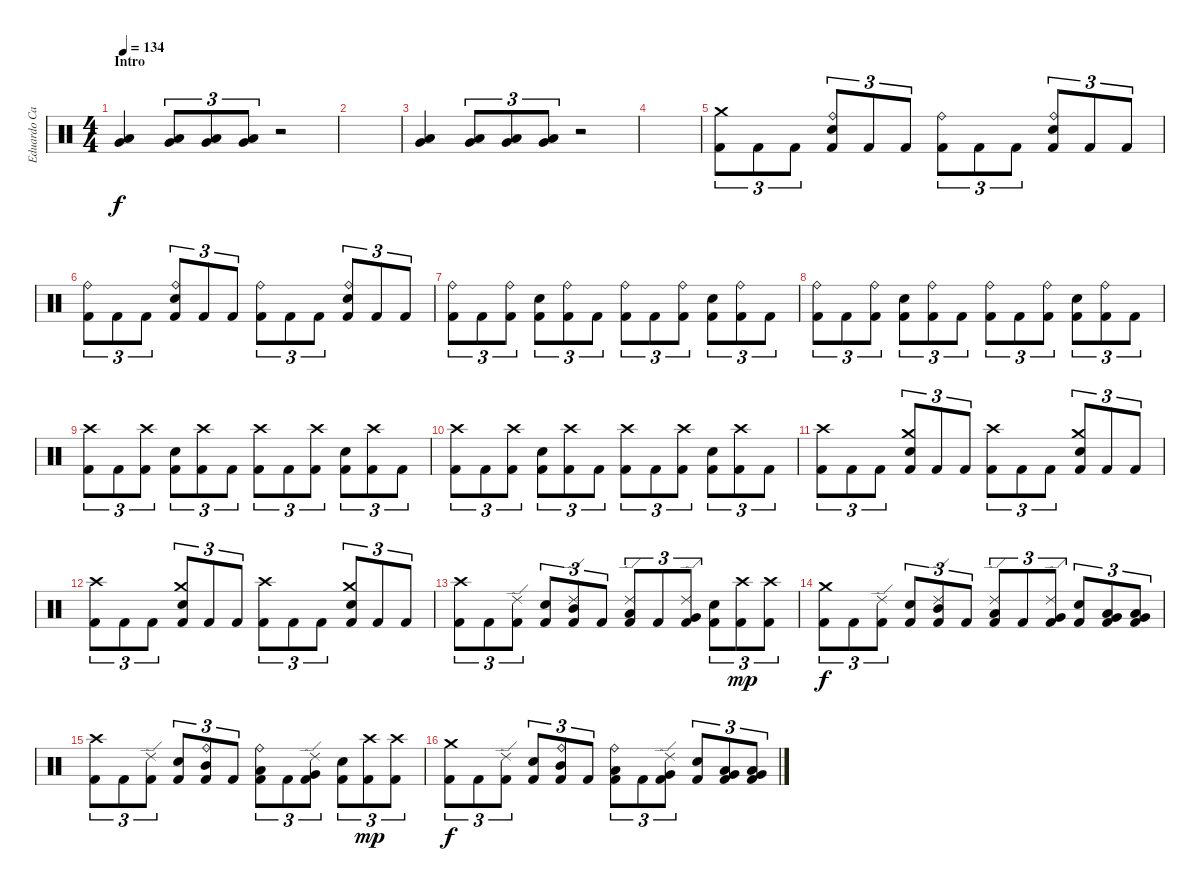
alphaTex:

\track ("Eduardo Carrillo" "Eduardo Ca") {instrument percussion}
\staff {score}
\articulation defaults
\ts (4 4)
\section ("" "Intro")
\tempo 134
\clef neutral
\ks c
("Low Tom (hit)" "Very Low Tom (hit)").4{dy f} ("Low Tom (hit)" "Very Low Tom (hit)").8{tu (3 2)} ("Low Tom (hit)" "Very Low Tom (hit)").8{tu (3 2)} ("Low Tom (hit)" "Very Low Tom (hit)").8{tu (3 2)} r.2 |
|
("Low Tom (hit)" "Very Low Tom (hit)").4 ("Low Tom (hit)" "Very Low Tom (hit)").8{tu (3 2)} ("Low Tom (hit)" "Very Low Tom (hit)").8{tu (3 2)} ("Low Tom (hit)" "Very Low Tom (hit)").8{tu (3 2)} r.2 |
|
("Kick (hit) 2" "Crash medium (hit)").8{tu (3 2)} "Kick (hit) 2".8{tu (3 2)} "Kick (hit) 2".8{tu (3 2)} ("Kick (hit) 2" "Ride (bell)" "Snare (hit) 2").8{tu (3 2)} "Kick (hit) 2".8{tu (3 2)} "Kick (hit) 2".8{tu (3 2)} ("Kick (hit) 2" "Ride (bell)").8{tu (3 2)} "Kick (hit) 2".8{tu (3 2)} "Kick (hit) 2".8{tu (3 2)} ("Kick (hit) 2" "Ride (bell)" "Snare (hit) 2").8{tu (3 2)} "Kick (hit) 2".8{tu (3 2)} "Kick (hit) 2".8{tu (3 2)} |
("Kick (hit) 2" "Ride (bell)").8{tu (3 2)} "Kick (hit) 2".8{tu (3 2)} "Kick (hit) 2".8{tu (3 2)} ("Kick (hit) 2" "Ride (bell)" "Snare (hit) 2").8{tu (3 2)} "Kick (hit) 2".8{tu (3 2)} "Kick (hit) 2".8{tu (3 2)} ("Kick (hit) 2" "Ride (bell)").8{tu (3 2)} "Kick (hit) 2".8{tu (3 2)} "Kick (hit) 2".8{tu (3 2)} ("Kick (hit) 2" "Ride (bell)" "Snare (hit) 2").8{tu (3 2)} "Kick (hit) 2".8{tu (3 2)} "Kick (hit) 2".8{tu (3 2)} |
("Kick (hit) 2" "Ride (bell)").8{tu (3 2)} "Kick (hit) 2".8{tu (3 2)} ("Kick (hit) 2" "Ride (bell)").8{tu (3 2)} ("Kick (hit) 2" "Snare (hit) 2").8{tu (3 2)} ("Kick (hit) 2" "Ride (bell)").8{tu (3 2)} "Kick (hit) 2".8{tu (3 2)} ("Kick (hit) 2" "Ride (bell)").8{tu (3 2)} "Kick (hit) 2".8{tu (3 2)} ("Kick (hit) 2" "Ride (bell)").8{tu (3 2)} ("Kick (hit) 2" "Snare (hit) 2").8{tu (3 2)} ("Kick (hit) 2" "Ride (bell)").8{tu (3 2)} "Kick (hit) 2".8{tu (3 2)} |
("Kick (hit) 2" "Ride (bell)").8{tu (3 2)} "Kick (hit) 2".8{tu (3 2)} ("Kick (hit) 2" "Ride (bell)").8{tu (3 2)} ("Kick (hit) 2" "Snare (hit) 2").8{tu (3 2)} ("Kick (hit) 2" "Ride (bell)").8{tu (3 2)} "Kick (hit) 2".8{tu (3 2)} ("Kick (hit) 2" "Ride (bell)").8{tu (3 2)} "Kick (hit) 2".8{tu (3 2)} ("Kick (hit) 2" "Ride (bell)").8{tu (3 2)} ("Kick (hit) 2" "Snare (hit) 2").8{tu (3 2)} ("Kick (hit) 2" "Ride (bell)").8{tu (3 2)} "Kick (hit) 2".8{tu (3 2)} |
("Kick (hit) 2" "Crash high (hit)").8{tu (3 2)} "Kick (hit) 2".8{tu (3 2)} ("Kick (hit) 2" "Crash high (hit)").8{tu (3 2)} ("Kick (hit) 2" "Snare (hit) 2").8{tu (3 2)} ("Kick (hit) 2" "Crash high (hit)").8{tu (3 2)} "Kick (hit) 2".8{tu (3 2)} ("Kick (hit) 2" "Crash high (hit)").8{tu (3 2)} "Kick (hit) 2".8{tu (3 2)} ("Kick (hit) 2" "Crash high (hit)").8{tu (3 2)} ("Kick (hit) 2" "Snare (hit) 2").8{tu (3 2)} ("Kick (hit) 2" "Crash high (hit)").8{tu (3 2)} "Kick (hit) 2".8{tu (3 2)} |
("Kick (hit) 2" "Crash high (hit)").8{tu (3 2)} "Kick (hit) 2".8{tu (3 2)} ("Kick (hit) 2" "Crash high (hit)").8{tu (3 2)} ("Kick (hit) 2" "Snare (hit) 2").8{tu (3 2)} ("Kick (hit) 2" "Crash high (hit)").8{tu (3 2)} "Kick (hit) 2".8{tu (3 2)} ("Kick (hit) 2" "Crash high (hit)").8{tu (3 2)} "Kick (hit) 2".8{tu (3 2)} ("Kick (hit) 2" "Crash high (hit)").8{tu (3 2)} ("Kick (hit) 2" "Snare (hit) 2").8{tu (3 2)} ("Kick (hit) 2" "Crash high (hit)").8{tu (3 2)} "Kick (hit) 2".8{tu (3 2)} |
("Kick (hit) 2" "Crash high (hit)").8{tu (3 2)} "Kick (hit) 2".8{tu (3 2)} "Kick (hit) 2".8{tu (3 2)} ("Kick (hit) 2" "Crash medium (hit)" "Snare (hit) 2").8{tu (3 2)} "Kick (hit) 2".8{tu (3 2)} "Kick (hit) 2".8{tu (3 2)} ("Kick (hit) 2" "Crash high (hit)").8{tu (3 2)} "Kick (hit) 2".8{tu (3 2)} "Kick (hit) 2".8{tu (3 2)} ("Kick (hit) 2" "Crash medium (hit)" "Snare (hit) 2").8{tu (3 2)} "Kick (hit) 2".8{tu (3 2)} "Kick (hit) 2".8{tu (3 2)} |
("Kick (hit) 2" "Crash high (hit)").8{tu (3 2)} "Kick (hit) 2".8{tu (3 2)} "Kick (hit) 2".8{tu (3 2)} ("Kick (hit) 2" "Crash medium (hit)" "Snare (hit) 2").8{tu (3 2)} "Kick (hit) 2".8{tu (3 2)} "Kick (hit) 2".8{tu (3 2)} ("Kick (hit) 2" "Crash high (hit)").8{tu (3 2)} "Kick (hit) 2".8{tu (3 2)} "Kick (hit) 2".8{tu (3 2)} ("Kick (hit) 2" "Crash medium (hit)" "Snare (hit) 2").8{tu (3 2)} "Kick (hit) 2".8{tu (3 2)} "Kick (hit) 2".8{tu (3 2)} |
("Kick (hit) 2" "Crash high (hit)").8{tu (3 2)} "Kick (hit) 2".8{tu (3 2)} ("Kick (hit) 2" "Ride (edge) 2").8{tu (3 2)} ("Kick (hit) 2" "Snare (hit) 2").8{tu (3 2)} ("Kick (hit) 2" "Ride (edge) 2" "Mid Tom (hit)").8{tu (3 2)} "Kick (hit) 2".8{tu (3 2)} ("Kick (hit) 2" "Ride (edge) 2" "Low Tom (hit)").8{tu (3 2)} "Kick (hit) 2".8{tu (3 2)} ("Kick (hit) 2" "Ride (edge) 2" "Very Low Tom (hit)").8{tu (3 2)} ("Kick (hit) 2" "Snare (hit) 2").8{tu (3 2)} ("Kick (hit) 2" "Crash high (hit)").8{tu (3 2) dy mp} ("Kick (hit) 2" "Crash high (hit)").8{tu (3 2)} |
("Kick (hit) 2" "Crash medium (hit)").8{tu (3 2) dy f} "Kick (hit) 2".8{tu (3 2)} ("Kick (hit) 2" "Ride (edge) 2").8{tu (3 2)} ("Kick (hit) 2" "Snare (hit) 2").8{tu (3 2)} ("Kick (hit) 2" "Ride (edge) 2" "Mid Tom (hit)").8{tu (3 2)} "Kick (hit) 2".8{tu (3 2)} ("Kick (hit) 2" "Ride (edge) 2" "Low Tom (hit)").8{tu (3 2)} "Kick (hit) 2".8{tu (3 2)} ("Kick (hit) 2" "Ride (edge) 2" "Very Low Tom (hit)").8{tu (3 2)} ("Kick (hit) 2" "Snare (hit) 2").8{tu (3 2)} ("Kick (hit) 2" "Low Tom (hit)" "Very Low Tom (hit)").8{tu (3 2)} ("Kick (hit) 2" "Low Tom (hit)" "Very Low Tom (hit)").8{tu (3 2)} |
("Kick (hit) 2" "Crash high (hit)").8{tu (3 2)} "Kick (hit) 2".8{tu (3 2)} ("Kick (hit) 2" "Ride (edge) 2").8{tu (3 2)} ("Kick (hit) 2" "Snare (hit) 2").8{tu (3 2)} ("Kick (hit) 2" "Ride (bell)" "Mid Tom (hit)").8{tu (3 2)} "Kick (hit) 2".8{tu (3 2)} ("Kick (hit) 2" "Ride (bell)" "Low Tom (hit)").8{tu (3 2)} "Kick (hit) 2".8{tu (3 2)} ("Kick (hit) 2" "Ride (edge) 2" "Very Low Tom (hit)").8{tu (3 2)} ("Kick (hit) 2" "Snare (hit) 2").8{tu (3 2)} ("Kick (hit) 2" "Crash high (hit)").8{tu (3 2) dy mp} ("Kick (hit) 2" "Crash high (hit)").8{tu (3 2)} |
("Kick (hit) 2" "Crash medium (hit)").8{tu (3 2) dy f} "Kick (hit) 2".8{tu (3 2)} ("Kick (hit) 2" "Ride (edge) 2").8{tu (3 2)} ("Kick (hit) 2" "Snare (hit) 2").8{tu (3 2)} ("Kick (hit) 2" "Ride (bell)" "Mid Tom (hit)").8{tu (3 2)} "Kick (hit) 2".8{tu (3 2)} ("Kick (hit) 2" "Ride (bell)" "Low Tom (hit)").8{tu (3 2)} "Kick (hit) 2".8{tu (3 2)} ("Kick (hit) 2" "Ride (edge) 2" "Very Low Tom (hit)").8{tu (3 2)} ("Kick (hit) 2" "Snare (hit) 2").8{tu (3 2)} ("Kick (hit) 2" "Low Tom (hit)" "Very Low Tom (hit)").8{tu (3 2)} ("Kick (hit) 2" "Low Tom (hit)" "Very Low Tom (hit)").8{tu (3 2)}
